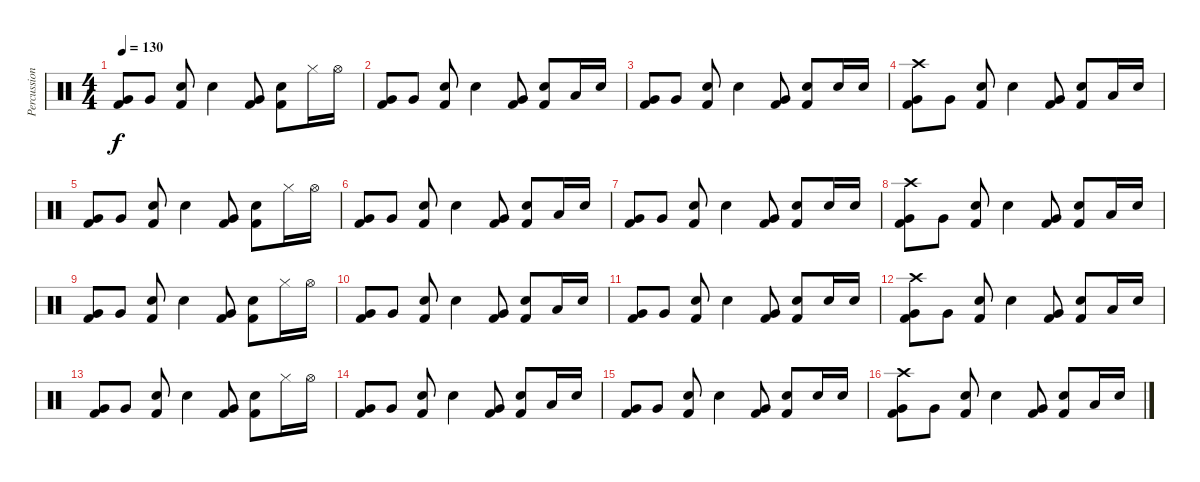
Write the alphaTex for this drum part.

\track ("Percussion" "Percussion") {instrument percussion}
\staff {score}
\articulation defaults
\ts (4 4)
\tempo 130
\clef neutral
\ks c
("Very Low Tom (hit)" "Kick (hit) 2").8{dy f} "Very Low Tom (hit)".8 ("Electric Snare (hit)" "Kick (hit) 2").8 "Electric Snare (hit)".4 ("Very Low Tom (hit)" "Kick (hit) 2").8 ("Electric Snare (hit)" "Kick (hit) 2").8 "Hi-Hat (closed)".16 "Hi-Hat (open)".16 |
("Very Low Tom (hit)" "Kick (hit) 2").8 "Very Low Tom (hit)".8 ("Electric Snare (hit)" "Kick (hit) 2").8 "Electric Snare (hit)".4 ("Very Low Tom (hit)" "Kick (hit) 2").8 ("Electric Snare (hit)" "Kick (hit) 2").8 "Low Floor Tom (hit)".16 "Electric Snare (hit)".16 |
("Very Low Tom (hit)" "Kick (hit) 2").8 "Very Low Tom (hit)".8 ("Electric Snare (hit)" "Kick (hit) 2").8 "Electric Snare (hit)".4 ("Very Low Tom (hit)" "Kick (hit) 2").8 ("Electric Snare (hit)" "Kick (hit) 2").8 "Electric Snare (hit)".16 "Electric Snare (hit)".16 |
("Crash high (hit)" "Very Low Tom (hit)" "Kick (hit) 2").8{volume 16} "Very Low Tom (hit)".8 ("Electric Snare (hit)" "Kick (hit) 2").8 "Electric Snare (hit)".4 ("Very Low Tom (hit)" "Kick (hit) 2").8 ("Electric Snare (hit)" "Kick (hit) 2").8 "Low Floor Tom (hit)".16 "Electric Snare (hit)".16 |
("Very Low Tom (hit)" "Kick (hit) 2").8 "Very Low Tom (hit)".8 ("Electric Snare (hit)" "Kick (hit) 2").8 "Electric Snare (hit)".4 ("Very Low Tom (hit)" "Kick (hit) 2").8 ("Electric Snare (hit)" "Kick (hit) 2").8 "Hi-Hat (closed)".16 "Hi-Hat (open)".16 |
("Very Low Tom (hit)" "Kick (hit) 2").8 "Very Low Tom (hit)".8 ("Electric Snare (hit)" "Kick (hit) 2").8 "Electric Snare (hit)".4 ("Very Low Tom (hit)" "Kick (hit) 2").8 ("Electric Snare (hit)" "Kick (hit) 2").8 "Low Floor Tom (hit)".16 "Electric Snare (hit)".16 |
("Very Low Tom (hit)" "Kick (hit) 2").8 "Very Low Tom (hit)".8 ("Electric Snare (hit)" "Kick (hit) 2").8 "Electric Snare (hit)".4 ("Very Low Tom (hit)" "Kick (hit) 2").8 ("Electric Snare (hit)" "Kick (hit) 2").8 "Electric Snare (hit)".16 "Electric Snare (hit)".16 |
("Crash high (hit)" "Very Low Tom (hit)" "Kick (hit) 2").8{volume 16} "Very Low Tom (hit)".8 ("Electric Snare (hit)" "Kick (hit) 2").8 "Electric Snare (hit)".4 ("Very Low Tom (hit)" "Kick (hit) 2").8 ("Electric Snare (hit)" "Kick (hit) 2").8 "Low Floor Tom (hit)".16 "Electric Snare (hit)".16 |
("Very Low Tom (hit)" "Kick (hit) 2").8 "Very Low Tom (hit)".8 ("Electric Snare (hit)" "Kick (hit) 2").8 "Electric Snare (hit)".4 ("Very Low Tom (hit)" "Kick (hit) 2").8 ("Electric Snare (hit)" "Kick (hit) 2").8 "Hi-Hat (closed)".16 "Hi-Hat (open)".16 |
("Very Low Tom (hit)" "Kick (hit) 2").8 "Very Low Tom (hit)".8 ("Electric Snare (hit)" "Kick (hit) 2").8 "Electric Snare (hit)".4 ("Very Low Tom (hit)" "Kick (hit) 2").8 ("Electric Snare (hit)" "Kick (hit) 2").8 "Low Floor Tom (hit)".16 "Electric Snare (hit)".16 |
("Very Low Tom (hit)" "Kick (hit) 2").8 "Very Low Tom (hit)".8 ("Electric Snare (hit)" "Kick (hit) 2").8 "Electric Snare (hit)".4 ("Very Low Tom (hit)" "Kick (hit) 2").8 ("Electric Snare (hit)" "Kick (hit) 2").8 "Electric Snare (hit)".16 "Electric Snare (hit)".16 |
("Crash high (hit)" "Very Low Tom (hit)" "Kick (hit) 2").8{volume 16} "Very Low Tom (hit)".8 ("Electric Snare (hit)" "Kick (hit) 2").8 "Electric Snare (hit)".4 ("Very Low Tom (hit)" "Kick (hit) 2").8 ("Electric Snare (hit)" "Kick (hit) 2").8 "Low Floor Tom (hit)".16 "Electric Snare (hit)".16 |
("Very Low Tom (hit)" "Kick (hit) 2").8 "Very Low Tom (hit)".8 ("Electric Snare (hit)" "Kick (hit) 2").8 "Electric Snare (hit)".4 ("Very Low Tom (hit)" "Kick (hit) 2").8 ("Electric Snare (hit)" "Kick (hit) 2").8 "Hi-Hat (closed)".16 "Hi-Hat (open)".16 |
("Very Low Tom (hit)" "Kick (hit) 2").8 "Very Low Tom (hit)".8 ("Electric Snare (hit)" "Kick (hit) 2").8 "Electric Snare (hit)".4 ("Very Low Tom (hit)" "Kick (hit) 2").8 ("Electric Snare (hit)" "Kick (hit) 2").8 "Low Floor Tom (hit)".16 "Electric Snare (hit)".16 |
("Very Low Tom (hit)" "Kick (hit) 2").8 "Very Low Tom (hit)".8 ("Electric Snare (hit)" "Kick (hit) 2").8 "Electric Snare (hit)".4 ("Very Low Tom (hit)" "Kick (hit) 2").8 ("Electric Snare (hit)" "Kick (hit) 2").8 "Electric Snare (hit)".16 "Electric Snare (hit)".16 |
("Crash high (hit)" "Very Low Tom (hit)" "Kick (hit) 2").8{volume 16} "Very Low Tom (hit)".8 ("Electric Snare (hit)" "Kick (hit) 2").8 "Electric Snare (hit)".4 ("Very Low Tom (hit)" "Kick (hit) 2").8 ("Electric Snare (hit)" "Kick (hit) 2").8 "Low Floor Tom (hit)".16 "Electric Snare (hit)".16
